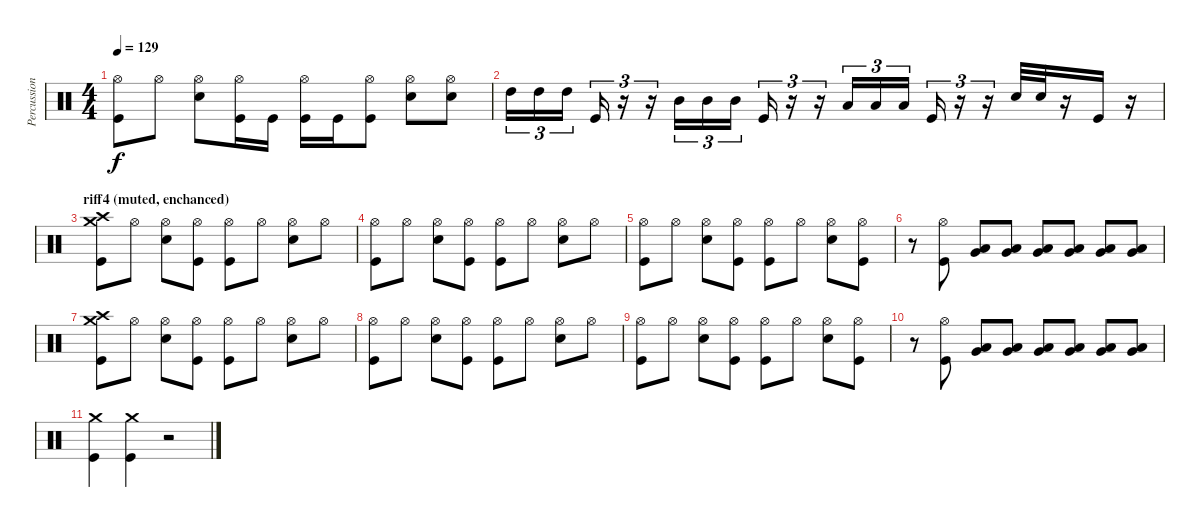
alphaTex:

\track ("Percussion" "Percussion") {instrument percussion}
\staff {score}
\articulation defaults
\ts (4 4)
\tempo 129
\clef neutral
\ks c
("Kick (hit)" "Hi-Hat (open)").8{dy f} "Hi-Hat (open)".8 ("Hi-Hat (open)" "Snare (hit) 2").8 ("Kick (hit)" "Hi-Hat (open)").16 "Kick (hit)".16 ("Kick (hit)" "Hi-Hat (open)").16 "Kick (hit)".16 ("Kick (hit)" "Hi-Hat (open)").8 ("Hi-Hat (open)" "Snare (hit) 2").8 ("Hi-Hat (open)" "Snare (hit) 2").8 |
"High Tom (hit)".16{tu (3 2)} "High Tom (hit)".16{tu (3 2)} "High Tom (hit)".16{tu (3 2)} "Kick (hit)".16{tu (3 2)} r.16{tu (3 2)} r.16{tu (3 2)} "Mid Tom (hit)".16{tu (3 2)} "Mid Tom (hit)".16{tu (3 2)} "Mid Tom (hit)".16{tu (3 2)} "Kick (hit)".16{tu (3 2)} r.16{tu (3 2)} r.16{tu (3 2)} "Low Tom (hit)".16{tu (3 2)} "Low Tom (hit)".16{tu (3 2)} "Low Tom (hit)".16{tu (3 2)} "Kick (hit)".16{tu (3 2)} r.16{tu (3 2)} r.16{tu (3 2)} "Snare (hit) 2".32 "Snare (hit) 2".32 r.16 "Kick (hit)".16 r.16 |
\section ("" "riff4 (muted, enchanced)")
("Kick (hit)" "Crash high (hit)" "Crash medium (hit)").8{volume 10} "Hi-Hat (open)".8 ("Hi-Hat (open)" "Snare (hit) 2").8 ("Kick (hit)" "Hi-Hat (open)").8 ("Kick (hit)" "Hi-Hat (open)").8 "Hi-Hat (open)".8 ("Hi-Hat (open)" "Snare (hit) 2").8 "Hi-Hat (open)".8 |
("Kick (hit)" "Hi-Hat (open)").8 "Hi-Hat (open)".8 ("Hi-Hat (open)" "Snare (hit) 2").8 ("Kick (hit)" "Hi-Hat (open)").8 ("Kick (hit)" "Hi-Hat (open)").8 "Hi-Hat (open)".8 ("Hi-Hat (open)" "Snare (hit) 2").8 "Hi-Hat (open)".8 |
("Kick (hit)" "Hi-Hat (open)").8{volume 7} "Hi-Hat (open)".8 ("Hi-Hat (open)" "Snare (hit) 2").8 ("Kick (hit)" "Hi-Hat (open)").8 ("Kick (hit)" "Hi-Hat (open)").8 "Hi-Hat (open)".8 ("Hi-Hat (open)" "Snare (hit) 2").8 ("Kick (hit)" "Hi-Hat (open)").8 |
r.8 ("Kick (hit)" "Hi-Hat (open)").8 ("Very Low Tom (hit)" "Low Tom (hit)").8 ("Very Low Tom (hit)" "Low Tom (hit)").8 ("Very Low Tom (hit)" "Low Tom (hit)").8 ("Very Low Tom (hit)" "Low Tom (hit)").8 ("Very Low Tom (hit)" "Low Tom (hit)").8 ("Very Low Tom (hit)" "Low Tom (hit)").8 |
("Kick (hit)" "Crash high (hit)" "Crash medium (hit)").8{volume 4} "Hi-Hat (open)".8 ("Hi-Hat (open)" "Snare (hit) 2").8 ("Kick (hit)" "Hi-Hat (open)").8 ("Kick (hit)" "Hi-Hat (open)").8 "Hi-Hat (open)".8 ("Hi-Hat (open)" "Snare (hit) 2").8 "Hi-Hat (open)".8 |
("Kick (hit)" "Hi-Hat (open)").8 "Hi-Hat (open)".8 ("Hi-Hat (open)" "Snare (hit) 2").8 ("Kick (hit)" "Hi-Hat (open)").8 ("Kick (hit)" "Hi-Hat (open)").8 "Hi-Hat (open)".8 ("Hi-Hat (open)" "Snare (hit) 2").8 "Hi-Hat (open)".8 |
("Kick (hit)" "Hi-Hat (open)").8{volume 1} "Hi-Hat (open)".8 ("Hi-Hat (open)" "Snare (hit) 2").8 ("Kick (hit)" "Hi-Hat (open)").8 ("Kick (hit)" "Hi-Hat (open)").8 "Hi-Hat (open)".8 ("Hi-Hat (open)" "Snare (hit) 2").8 ("Kick (hit)" "Hi-Hat (open)").8 |
r.8 ("Kick (hit)" "Hi-Hat (open)").8 ("Very Low Tom (hit)" "Low Tom (hit)").8 ("Very Low Tom (hit)" "Low Tom (hit)").8 ("Very Low Tom (hit)" "Low Tom (hit)").8 ("Very Low Tom (hit)" "Low Tom (hit)").8 ("Very Low Tom (hit)" "Low Tom (hit)").8 ("Very Low Tom (hit)" "Low Tom (hit)").8 |
("Kick (hit)" "Crash medium (hit)").4{volume 0} ("Kick (hit)" "Crash medium (hit)").4 r.2
